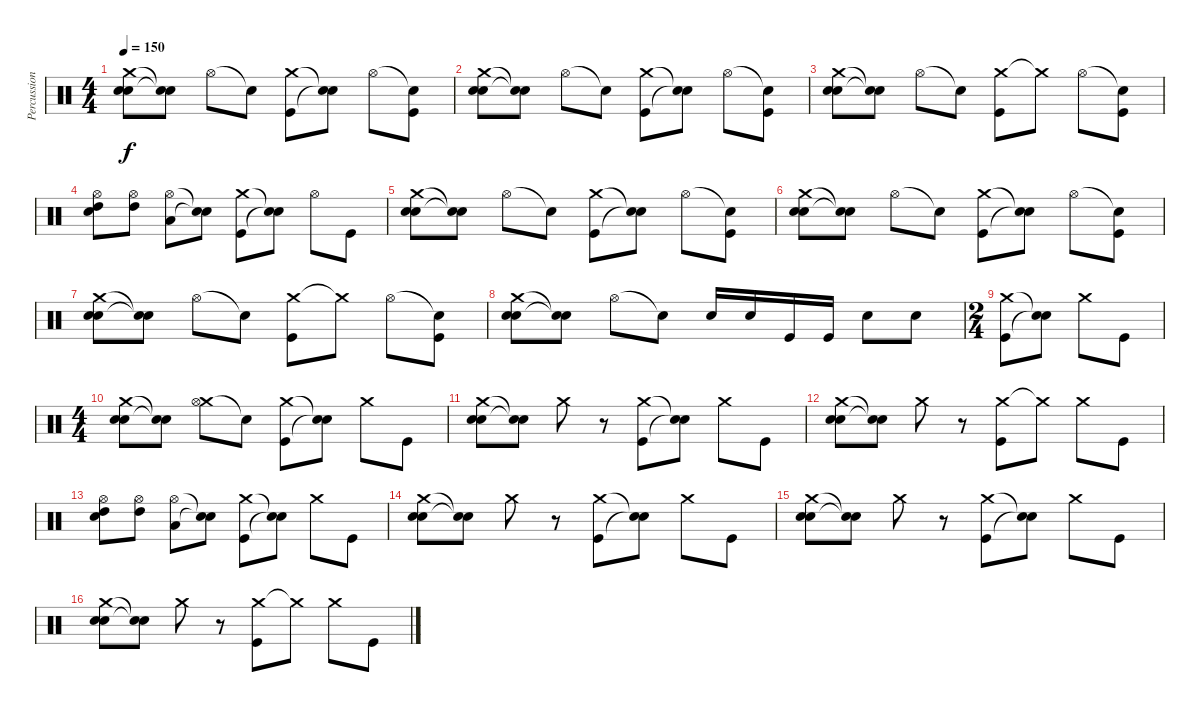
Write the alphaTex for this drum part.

\track ("Percussions" "Percussion") {instrument percussion}
\staff {score}
\articulation defaults
\ts (4 4)
\tempo 150
\clef neutral
\ks c
("Crash medium (hit)" "Electric Snare (hit)" "Electric Snare (hit)").8{dy f} ("Snare (hit)"{t} "Snare (hit)"{t}).8 "Hi-Hat (open)".8 "Snare (hit)"{t}.8 ("Crash medium (hit)" "Kick (hit)").8 ("Snare (hit)"{t} "Snare (hit)"{t}).8 "Hi-Hat (open)".8 ("Snare (hit)"{t} "Kick (hit)").8 |
("Crash medium (hit)" "Electric Snare (hit)" "Electric Snare (hit)").8 ("Snare (hit)"{t} "Snare (hit)"{t}).8 "Hi-Hat (open)".8 "Snare (hit)"{t}.8 ("Crash medium (hit)" "Kick (hit)").8 ("Snare (hit)"{t} "Snare (hit)"{t}).8 "Hi-Hat (open)".8 ("Snare (hit)"{t} "Kick (hit)").8 |
("Crash medium (hit)" "Electric Snare (hit)" "Electric Snare (hit)").8 ("Snare (hit)"{t} "Snare (hit)"{t}).8 "Hi-Hat (open)".8 "Snare (hit)"{t}.8 ("Crash medium (hit)" "Kick (hit)").8 "Crash medium (hit)"{t}.8 "Hi-Hat (open)".8 ("Snare (hit)"{t} "Kick (hit)").8 |
("Hi-Hat (open)" "High Tom (hit)" "Electric Snare (hit)").8{volume 12} ("Hi-Hat (open)" "High Tom (hit)").8 ("Hi-Hat (open)" "Low Floor Tom (hit)").8 ("Snare (hit)"{t} "Snare (hit)"{t}).8 ("Crash medium (hit)" "Kick (hit)").8{volume 16} ("Snare (hit)"{t} "Snare (hit)"{t}).8 "Hi-Hat (open)".8 "Kick (hit)".8 |
("Crash medium (hit)" "Electric Snare (hit)" "Electric Snare (hit)").8 ("Snare (hit)"{t} "Snare (hit)"{t}).8 "Hi-Hat (open)".8 "Snare (hit)"{t}.8 ("Crash medium (hit)" "Kick (hit)").8 ("Snare (hit)"{t} "Snare (hit)"{t}).8 "Hi-Hat (open)".8 ("Snare (hit)"{t} "Kick (hit)").8 |
("Crash medium (hit)" "Electric Snare (hit)" "Electric Snare (hit)").8 ("Snare (hit)"{t} "Snare (hit)"{t}).8 "Hi-Hat (open)".8 "Snare (hit)"{t}.8 ("Crash medium (hit)" "Kick (hit)").8 ("Snare (hit)"{t} "Snare (hit)"{t}).8 "Hi-Hat (open)".8 ("Snare (hit)"{t} "Kick (hit)").8 |
("Crash medium (hit)" "Electric Snare (hit)" "Electric Snare (hit)").8 ("Snare (hit)"{t} "Snare (hit)"{t}).8 "Hi-Hat (open)".8 "Snare (hit)"{t}.8 ("Crash medium (hit)" "Kick (hit)").8 "Crash medium (hit)"{t}.8 "Hi-Hat (open)".8 ("Snare (hit)"{t} "Kick (hit)").8 |
("Crash medium (hit)" "Electric Snare (hit)" "Electric Snare (hit)").8 ("Snare (hit)"{t} "Snare (hit)"{t}).8 "Hi-Hat (open)".8 "Snare (hit)"{t}.8 "Electric Snare (hit)".16 "Electric Snare (hit)".16 "Kick (hit)".16 "Kick (hit)".16 "Electric Snare (hit)".8 "Electric Snare (hit)".8 |
\ts (2 4)
("Crash medium (hit)" "Kick (hit)").8 ("Snare (hit)"{t} "Snare (hit)"{t}).8 "Crash medium (hit)".8 "Kick (hit)".8 |
\ts (4 4)
("Crash medium (hit)" "Electric Snare (hit)" "Electric Snare (hit)").8 ("Snare (hit)"{t} "Snare (hit)"{t}).8 ("Crash medium (hit)" "Hi-Hat (open)").8 "Snare (hit)"{t}.8 ("Crash medium (hit)" "Kick (hit)").8 ("Snare (hit)"{t} "Snare (hit)"{t}).8 "Crash medium (hit)".8 "Kick (hit)".8 |
("Crash medium (hit)" "Electric Snare (hit)" "Electric Snare (hit)").8 ("Snare (hit)"{t} "Snare (hit)"{t}).8 "Crash medium (hit)".8 r.8 ("Crash medium (hit)" "Kick (hit)").8 ("Snare (hit)"{t} "Snare (hit)"{t}).8 "Crash medium (hit)".8 "Kick (hit)".8 |
("Crash medium (hit)" "Electric Snare (hit)" "Electric Snare (hit)").8 ("Snare (hit)"{t} "Snare (hit)"{t}).8 "Crash medium (hit)".8 r.8 ("Crash medium (hit)" "Kick (hit)").8 "Crash medium (hit)"{t}.8 "Crash medium (hit)".8 "Kick (hit)".8 |
("Hi-Hat (open)" "High Tom (hit)" "Electric Snare (hit)").8{volume 12} ("Hi-Hat (open)" "High Tom (hit)").8 ("Hi-Hat (open)" "Low Floor Tom (hit)").8 ("Snare (hit)"{t} "Snare (hit)"{t}).8 ("Crash medium (hit)" "Kick (hit)").8{volume 16} ("Snare (hit)"{t} "Snare (hit)"{t}).8 "Crash medium (hit)".8 "Kick (hit)".8 |
("Crash medium (hit)" "Electric Snare (hit)" "Electric Snare (hit)").8 ("Snare (hit)"{t} "Snare (hit)"{t}).8 "Crash medium (hit)".8 r.8 ("Crash medium (hit)" "Kick (hit)").8 ("Snare (hit)"{t} "Snare (hit)"{t}).8 "Crash medium (hit)".8 "Kick (hit)".8 |
("Crash medium (hit)" "Electric Snare (hit)" "Electric Snare (hit)").8 ("Snare (hit)"{t} "Snare (hit)"{t}).8 "Crash medium (hit)".8 r.8 ("Crash medium (hit)" "Kick (hit)").8 ("Snare (hit)"{t} "Snare (hit)"{t}).8 "Crash medium (hit)".8 "Kick (hit)".8 |
("Crash medium (hit)" "Electric Snare (hit)" "Electric Snare (hit)").8 ("Snare (hit)"{t} "Snare (hit)"{t}).8 "Crash medium (hit)".8 r.8 ("Crash medium (hit)" "Kick (hit)").8 "Crash medium (hit)"{t}.8 "Crash medium (hit)".8 "Kick (hit)".8
